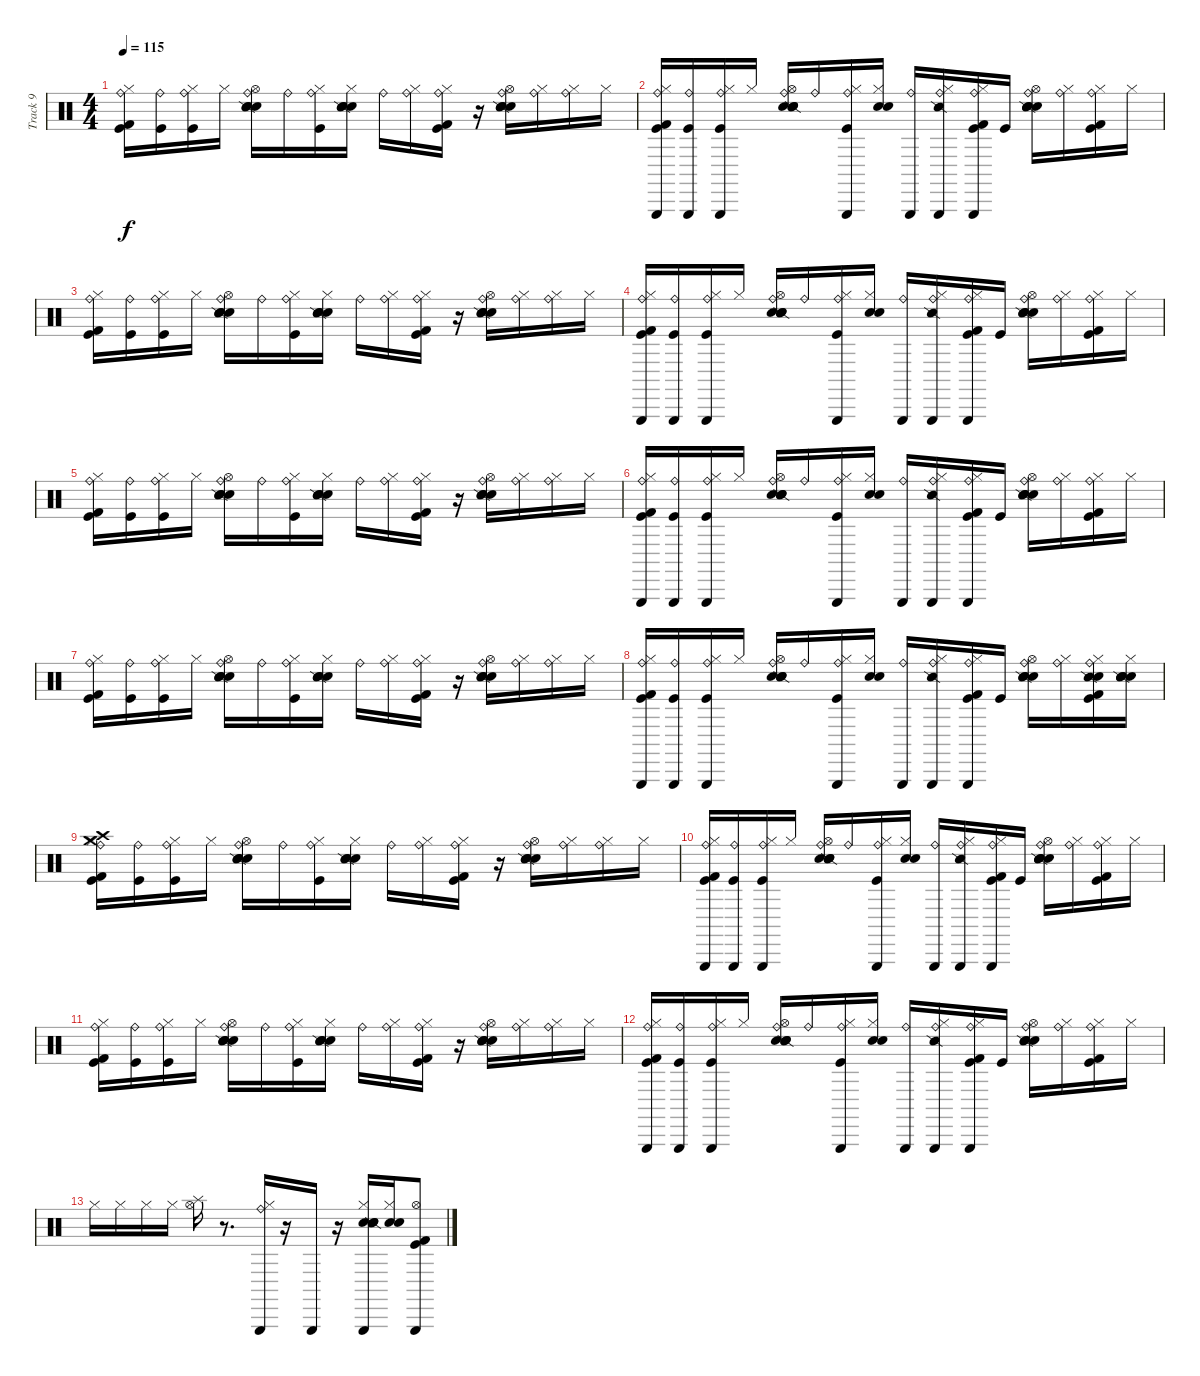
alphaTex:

\track ("Track 9" "Track 9") {instrument percussion}
\staff {score}
\articulation defaults
\ts (4 4)
\tempo 115
\clef neutral
\ks c
("Kick (hit)" "Kick (hit) 2" "Ride (bell)" "Hi-Hat (closed)").16{dy f} ("Kick (hit)" "Ride (bell)").16 ("Kick (hit)" "Ride (bell)" "Hi-Hat (closed)").16 "Hi-Hat (closed)".16 ("Metronome (bell)" "Snare (side stick) 2" "Electric Snare (hit)" "Snare (hit) 2" "Ride (bell)" "Hi-Hat (open)").16 "Ride (bell)".16 ("Kick (hit)" "Ride (bell)" "Hi-Hat (closed)").16 ("Metronome (bell)" "Snare (side stick) 2" "Snare (hit) 2" "Electric Snare (hit)" "Hi-Hat (closed)").16 "Ride (bell)".16 ("Ride (bell)" "Hi-Hat (closed)").16 ("Kick (hit)" "Kick (hit) 2" "Ride (bell)" "Hi-Hat (closed)").16 r.16 ("Metronome (bell)" "Snare (side stick) 2" "Snare (hit) 2" "Electric Snare (hit)" "Ride (bell)" "Hi-Hat (open)").16 ("Ride (bell)" "Hi-Hat (closed)").16 ("Ride (bell)" "Hi-Hat (closed)").16 "Hi-Hat (closed)".16 |
("Kick (hit)" "Kick (hit) 2" "Ride (bell)" "Hi-Hat (closed)" "Triangle (hit)").16 ("Kick (hit)" "Ride (bell)" "Triangle (hit)").16 ("Kick (hit)" "Ride (bell)" "Hi-Hat (closed)" "Triangle (hit)").16 "Hi-Hat (closed)".16 ("Metronome (bell)" "Snare (side stick) 2" "Electric Snare (hit)" "Snare (hit) 2" "Ride (bell)" "Hi-Hat (open)").16 "Ride (bell)".16 ("Kick (hit)" "Ride (bell)" "Hi-Hat (closed)" "Triangle (hit)").16 ("Snare (hit) 2" "Hi-Hat (closed)" "Electric Snare (hit)").16 ("Ride (bell)" "Triangle (hit)").16 ("Ride (bell)" "Hi-Hat (closed)" "Snare (side stick) 2" "Triangle (hit)").16 ("Kick (hit)" "Kick (hit) 2" "Ride (bell)" "Hi-Hat (closed)" "Triangle (hit)").16 "Kick (hit)".16 ("Metronome (bell)" "Snare (side stick) 2" "Snare (hit) 2" "Electric Snare (hit)" "Ride (bell)" "Hi-Hat (open)").16 ("Ride (bell)" "Hi-Hat (closed)").16 ("Ride (bell)" "Hi-Hat (closed)" "Kick (hit)" "Kick (hit) 2").16 "Hi-Hat (closed)".16 |
("Kick (hit)" "Kick (hit) 2" "Ride (bell)" "Hi-Hat (closed)").16 ("Kick (hit)" "Ride (bell)").16 ("Kick (hit)" "Ride (bell)" "Hi-Hat (closed)").16 "Hi-Hat (closed)".16 ("Metronome (bell)" "Snare (side stick) 2" "Electric Snare (hit)" "Snare (hit) 2" "Ride (bell)" "Hi-Hat (open)").16 "Ride (bell)".16 ("Kick (hit)" "Ride (bell)" "Hi-Hat (closed)").16 ("Metronome (bell)" "Snare (side stick) 2" "Snare (hit) 2" "Electric Snare (hit)" "Hi-Hat (closed)").16 "Ride (bell)".16 ("Ride (bell)" "Hi-Hat (closed)").16 ("Kick (hit)" "Kick (hit) 2" "Ride (bell)" "Hi-Hat (closed)").16 r.16 ("Metronome (bell)" "Snare (side stick) 2" "Snare (hit) 2" "Electric Snare (hit)" "Ride (bell)" "Hi-Hat (open)").16 ("Ride (bell)" "Hi-Hat (closed)").16 ("Ride (bell)" "Hi-Hat (closed)").16 "Hi-Hat (closed)".16 |
("Kick (hit)" "Kick (hit) 2" "Ride (bell)" "Hi-Hat (closed)" "Triangle (hit)").16 ("Kick (hit)" "Ride (bell)" "Triangle (hit)").16 ("Kick (hit)" "Ride (bell)" "Hi-Hat (closed)" "Triangle (hit)").16 "Hi-Hat (closed)".16 ("Metronome (bell)" "Snare (side stick) 2" "Electric Snare (hit)" "Snare (hit) 2" "Ride (bell)" "Hi-Hat (open)").16 "Ride (bell)".16 ("Kick (hit)" "Ride (bell)" "Hi-Hat (closed)" "Triangle (hit)").16 ("Snare (hit) 2" "Hi-Hat (closed)" "Electric Snare (hit)").16 ("Ride (bell)" "Triangle (hit)").16 ("Ride (bell)" "Hi-Hat (closed)" "Snare (side stick) 2" "Triangle (hit)").16 ("Kick (hit)" "Kick (hit) 2" "Ride (bell)" "Hi-Hat (closed)" "Triangle (hit)").16 "Kick (hit)".16 ("Metronome (bell)" "Snare (side stick) 2" "Snare (hit) 2" "Electric Snare (hit)" "Ride (bell)" "Hi-Hat (open)").16 ("Ride (bell)" "Hi-Hat (closed)").16 ("Ride (bell)" "Hi-Hat (closed)" "Kick (hit)" "Kick (hit) 2").16 "Hi-Hat (closed)".16 |
("Kick (hit)" "Kick (hit) 2" "Ride (bell)" "Hi-Hat (closed)").16 ("Kick (hit)" "Ride (bell)").16 ("Kick (hit)" "Ride (bell)" "Hi-Hat (closed)").16 "Hi-Hat (closed)".16 ("Metronome (bell)" "Snare (side stick) 2" "Electric Snare (hit)" "Snare (hit) 2" "Ride (bell)" "Hi-Hat (open)").16 "Ride (bell)".16 ("Kick (hit)" "Ride (bell)" "Hi-Hat (closed)").16 ("Metronome (bell)" "Snare (side stick) 2" "Snare (hit) 2" "Electric Snare (hit)" "Hi-Hat (closed)").16 "Ride (bell)".16 ("Ride (bell)" "Hi-Hat (closed)").16 ("Kick (hit)" "Kick (hit) 2" "Ride (bell)" "Hi-Hat (closed)").16 r.16 ("Metronome (bell)" "Snare (side stick) 2" "Snare (hit) 2" "Electric Snare (hit)" "Ride (bell)" "Hi-Hat (open)").16 ("Ride (bell)" "Hi-Hat (closed)").16 ("Ride (bell)" "Hi-Hat (closed)").16 "Hi-Hat (closed)".16 |
("Kick (hit)" "Kick (hit) 2" "Ride (bell)" "Hi-Hat (closed)" "Triangle (hit)").16 ("Kick (hit)" "Ride (bell)" "Triangle (hit)").16 ("Kick (hit)" "Ride (bell)" "Hi-Hat (closed)" "Triangle (hit)").16 "Hi-Hat (closed)".16 ("Metronome (bell)" "Snare (side stick) 2" "Electric Snare (hit)" "Snare (hit) 2" "Ride (bell)" "Hi-Hat (open)").16 "Ride (bell)".16 ("Kick (hit)" "Ride (bell)" "Hi-Hat (closed)" "Triangle (hit)").16 ("Snare (hit) 2" "Hi-Hat (closed)" "Electric Snare (hit)").16 ("Ride (bell)" "Triangle (hit)").16 ("Ride (bell)" "Hi-Hat (closed)" "Snare (side stick) 2" "Triangle (hit)").16 ("Kick (hit)" "Kick (hit) 2" "Ride (bell)" "Hi-Hat (closed)" "Triangle (hit)").16 "Kick (hit)".16 ("Metronome (bell)" "Snare (side stick) 2" "Snare (hit) 2" "Electric Snare (hit)" "Ride (bell)" "Hi-Hat (open)").16 ("Ride (bell)" "Hi-Hat (closed)").16 ("Ride (bell)" "Hi-Hat (closed)" "Kick (hit)" "Kick (hit) 2").16 "Hi-Hat (closed)".16 |
("Kick (hit)" "Kick (hit) 2" "Ride (bell)" "Hi-Hat (closed)").16 ("Kick (hit)" "Ride (bell)").16 ("Kick (hit)" "Ride (bell)" "Hi-Hat (closed)").16 "Hi-Hat (closed)".16 ("Metronome (bell)" "Snare (side stick) 2" "Electric Snare (hit)" "Snare (hit) 2" "Ride (bell)" "Hi-Hat (open)").16 "Ride (bell)".16 ("Kick (hit)" "Ride (bell)" "Hi-Hat (closed)").16 ("Metronome (bell)" "Snare (side stick) 2" "Snare (hit) 2" "Electric Snare (hit)" "Hi-Hat (closed)").16 "Ride (bell)".16 ("Ride (bell)" "Hi-Hat (closed)").16 ("Kick (hit)" "Kick (hit) 2" "Ride (bell)" "Hi-Hat (closed)").16 r.16 ("Metronome (bell)" "Snare (side stick) 2" "Snare (hit) 2" "Electric Snare (hit)" "Ride (bell)" "Hi-Hat (open)").16 ("Ride (bell)" "Hi-Hat (closed)").16 ("Ride (bell)" "Hi-Hat (closed)").16 "Hi-Hat (closed)".16 |
("Kick (hit)" "Kick (hit) 2" "Ride (bell)" "Hi-Hat (closed)" "Triangle (hit)").16 ("Kick (hit)" "Ride (bell)" "Triangle (hit)").16 ("Kick (hit)" "Ride (bell)" "Hi-Hat (closed)" "Triangle (hit)").16 "Hi-Hat (closed)".16 ("Metronome (bell)" "Snare (side stick) 2" "Electric Snare (hit)" "Snare (hit) 2" "Ride (bell)" "Hi-Hat (open)").16 "Ride (bell)".16 ("Kick (hit)" "Ride (bell)" "Hi-Hat (closed)" "Triangle (hit)").16 ("Snare (hit) 2" "Hi-Hat (closed)" "Electric Snare (hit)").16 ("Ride (bell)" "Triangle (hit)").16 ("Ride (bell)" "Hi-Hat (closed)" "Snare (side stick) 2" "Triangle (hit)").16 ("Kick (hit)" "Kick (hit) 2" "Ride (bell)" "Hi-Hat (closed)" "Triangle (hit)").16 "Kick (hit)".16 ("Metronome (bell)" "Snare (side stick) 2" "Snare (hit) 2" "Electric Snare (hit)" "Ride (bell)" "Hi-Hat (open)").16 ("Ride (bell)" "Hi-Hat (closed)").16 ("Ride (bell)" "Hi-Hat (closed)" "Kick (hit)" "Kick (hit) 2" "Metronome (bell)" "Snare (side stick) 2").16 ("Hi-Hat (closed)" "Metronome (bell)" "Snare (side stick) 2" "Snare (hit) 2" "Electric Snare (hit)").16 |
("Kick (hit)" "Kick (hit) 2" "Ride (bell)" "Hi-Hat (closed)" "Crash high (hit)" "Crash medium (hit)").16 ("Kick (hit)" "Ride (bell)").16 ("Kick (hit)" "Ride (bell)" "Hi-Hat (closed)").16 "Hi-Hat (closed)".16 ("Metronome (bell)" "Snare (side stick) 2" "Electric Snare (hit)" "Snare (hit) 2" "Ride (bell)" "Hi-Hat (open)").16 "Ride (bell)".16 ("Kick (hit)" "Ride (bell)" "Hi-Hat (closed)").16 ("Metronome (bell)" "Snare (side stick) 2" "Snare (hit) 2" "Electric Snare (hit)" "Hi-Hat (closed)").16 "Ride (bell)".16 ("Ride (bell)" "Hi-Hat (closed)").16 ("Kick (hit)" "Kick (hit) 2" "Ride (bell)" "Hi-Hat (closed)").16 r.16 ("Metronome (bell)" "Snare (side stick) 2" "Snare (hit) 2" "Electric Snare (hit)" "Ride (bell)" "Hi-Hat (open)").16 ("Ride (bell)" "Hi-Hat (closed)").16 ("Ride (bell)" "Hi-Hat (closed)").16 "Hi-Hat (closed)".16 |
("Kick (hit)" "Kick (hit) 2" "Ride (bell)" "Hi-Hat (closed)" "Triangle (hit)").16 ("Kick (hit)" "Ride (bell)" "Triangle (hit)").16 ("Kick (hit)" "Ride (bell)" "Hi-Hat (closed)" "Triangle (hit)").16 "Hi-Hat (closed)".16 ("Metronome (bell)" "Snare (side stick) 2" "Electric Snare (hit)" "Snare (hit) 2" "Ride (bell)" "Hi-Hat (open)").16 "Ride (bell)".16 ("Kick (hit)" "Ride (bell)" "Hi-Hat (closed)" "Triangle (hit)").16 ("Snare (hit) 2" "Hi-Hat (closed)" "Electric Snare (hit)").16 ("Ride (bell)" "Triangle (hit)").16 ("Ride (bell)" "Hi-Hat (closed)" "Snare (side stick) 2" "Triangle (hit)").16 ("Kick (hit)" "Kick (hit) 2" "Ride (bell)" "Hi-Hat (closed)" "Triangle (hit)").16 "Kick (hit)".16 ("Metronome (bell)" "Snare (side stick) 2" "Snare (hit) 2" "Electric Snare (hit)" "Ride (bell)" "Hi-Hat (open)").16 ("Ride (bell)" "Hi-Hat (closed)").16 ("Ride (bell)" "Hi-Hat (closed)" "Kick (hit)" "Kick (hit) 2").16 "Hi-Hat (closed)".16 |
("Kick (hit)" "Kick (hit) 2" "Ride (bell)" "Hi-Hat (closed)").16 ("Kick (hit)" "Ride (bell)").16 ("Kick (hit)" "Ride (bell)" "Hi-Hat (closed)").16 "Hi-Hat (closed)".16 ("Metronome (bell)" "Snare (side stick) 2" "Electric Snare (hit)" "Snare (hit) 2" "Ride (bell)" "Hi-Hat (open)").16 "Ride (bell)".16 ("Kick (hit)" "Ride (bell)" "Hi-Hat (closed)").16 ("Metronome (bell)" "Snare (side stick) 2" "Snare (hit) 2" "Electric Snare (hit)" "Hi-Hat (closed)").16 "Ride (bell)".16 ("Ride (bell)" "Hi-Hat (closed)").16 ("Kick (hit)" "Kick (hit) 2" "Ride (bell)" "Hi-Hat (closed)").16 r.16 ("Metronome (bell)" "Snare (side stick) 2" "Snare (hit) 2" "Electric Snare (hit)" "Ride (bell)" "Hi-Hat (open)").16 ("Ride (bell)" "Hi-Hat (closed)").16 ("Ride (bell)" "Hi-Hat (closed)").16 "Hi-Hat (closed)".16 |
("Kick (hit)" "Kick (hit) 2" "Ride (bell)" "Hi-Hat (closed)" "Triangle (hit)").16 ("Kick (hit)" "Ride (bell)" "Triangle (hit)").16 ("Kick (hit)" "Ride (bell)" "Hi-Hat (closed)" "Triangle (hit)").16 "Hi-Hat (closed)".16 ("Metronome (bell)" "Snare (side stick) 2" "Electric Snare (hit)" "Snare (hit) 2" "Ride (bell)" "Hi-Hat (open)").16 "Ride (bell)".16 ("Kick (hit)" "Ride (bell)" "Hi-Hat (closed)" "Triangle (hit)").16 ("Snare (hit) 2" "Hi-Hat (closed)" "Electric Snare (hit)").16 ("Ride (bell)" "Triangle (hit)").16 ("Ride (bell)" "Hi-Hat (closed)" "Snare (side stick) 2" "Triangle (hit)").16 ("Kick (hit)" "Kick (hit) 2" "Ride (bell)" "Hi-Hat (closed)" "Triangle (hit)").16 "Kick (hit)".16 ("Metronome (bell)" "Snare (side stick) 2" "Snare (hit) 2" "Electric Snare (hit)" "Ride (bell)" "Hi-Hat (open)").16 ("Ride (bell)" "Hi-Hat (closed)").16 ("Ride (bell)" "Hi-Hat (closed)" "Kick (hit)" "Kick (hit) 2").16 "Hi-Hat (closed)".16 |
"Hi-Hat (closed)".16 "Hi-Hat (closed)".16 "Hi-Hat (closed)".16 "Hi-Hat (closed)".16 ("Hi-Hat (open)" "Splash (hit)").16 r.8{d} ("Hi-Hat (closed)" "Triangle (hit)" "Ride (bell)").16 r.16 "Triangle (hit)".16 r.16 ("Triangle (hit)" "Metronome (bell)" "Snare (side stick) 2" "Snare (hit) 2" "Electric Snare (hit)" "Hi-Hat (closed)").16 ("Snare (hit) 2" "Electric Snare (hit)" "Hi-Hat (closed)").16 ("Triangle (hit)" "Kick (hit)" "Kick (hit) 2" "Hi-Hat (open)").8
